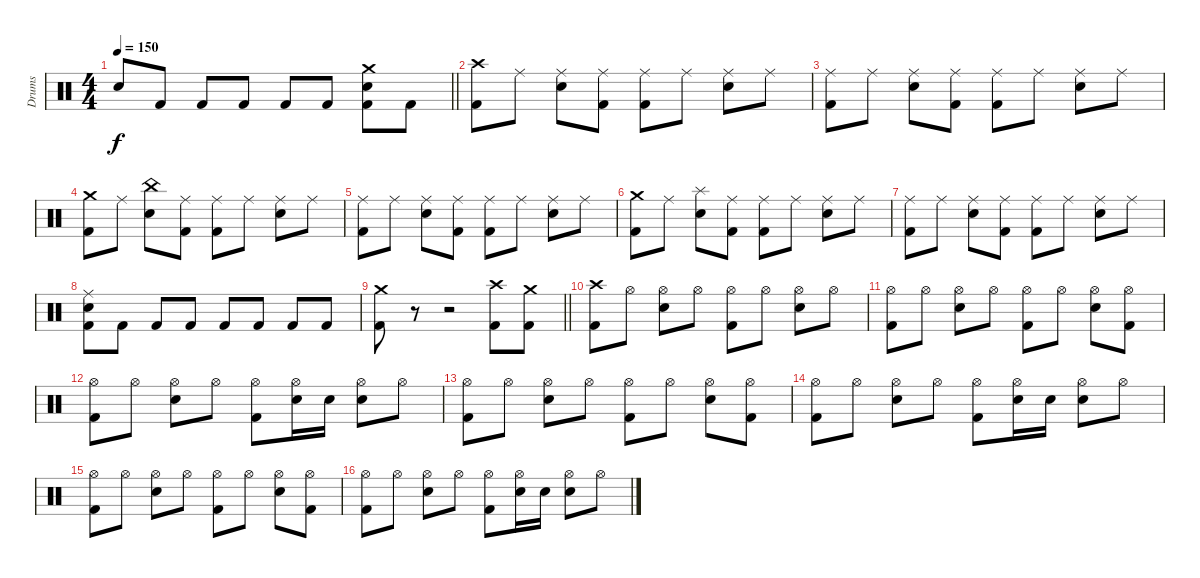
\track ("Drums" "Drums") {instrument percussion}
\staff {score}
\articulation defaults
\ts (4 4)
\tempo 150
\clef neutral
\barLineRight lightlight
\ks c "Snare (hit) 2".8{dy f} "Kick (hit) 2".8 "Kick (hit) 2".8 "Kick (hit) 2".8 "Kick (hit) 2".8 "Kick (hit) 2".8
("Crash medium (hit)" "Snare (hit) 2" "Kick (hit) 2").8 "Kick (hit) 2".8 |
("Crash high (hit)" "Kick (hit) 2").8 "Ride (middle)".8 ("Ride (middle)" "Snare (hit) 2").8 ("Ride (middle)" "Kick (hit) 2").8 ("Ride (middle)" "Kick (hit) 2").8 "Ride (middle)".8 ("Ride (middle)" "Snare (hit) 2").8 "Ride (middle)".8 |
("Ride (middle)" "Kick (hit) 2").8 "Ride (middle)".8 ("Ride (middle)" "Snare (hit) 2").8 ("Ride (middle)" "Kick (hit) 2").8 ("Ride (middle)" "Kick (hit) 2").8 "Ride (middle)".8 ("Ride (middle)" "Snare (hit) 2").8 "Ride (middle)".8 |
("Crash medium (hit)" "Kick (hit) 2").8 "Ride (middle)".8 ("China (hit)" "Snare (hit) 2").8 ("Ride (middle)" "Kick (hit) 2").8 ("Ride (middle)" "Kick (hit) 2").8 "Ride (middle)".8 ("Ride (middle)" "Snare (hit) 2").8 "Ride (middle)".8 |
("Ride (middle)" "Kick (hit) 2").8 "Ride (middle)".8 ("Ride (middle)" "Snare (hit) 2").8 ("Ride (middle)" "Kick (hit) 2").8 ("Ride (middle)" "Kick (hit) 2").8 "Ride (middle)".8 ("Ride (middle)" "Snare (hit) 2").8 "Ride (middle)".8 |
("Crash medium (hit)" "Kick (hit) 2").8 "Ride (middle)".8 ("Splash (hit)" "Snare (hit) 2").8 ("Ride (middle)" "Kick (hit) 2").8 ("Ride (middle)" "Kick (hit) 2").8 "Ride (middle)".8 ("Ride (middle)" "Snare (hit) 2").8 "Ride (middle)".8 |
("Ride (middle)" "Kick (hit) 2").8 "Ride (middle)".8 ("Ride (middle)" "Snare (hit) 2").8 ("Ride (middle)" "Kick (hit) 2").8 ("Ride (middle)" "Kick (hit) 2").8 "Ride (middle)".8 ("Ride (middle)" "Snare (hit) 2").8 "Ride (middle)".8 |
("Ride (middle)" "Snare (hit) 2" "Kick (hit) 2").8 "Kick (hit) 2".8 "Kick (hit) 2".8 "Kick (hit) 2".8 "Kick (hit) 2".8 "Kick (hit) 2".8 "Kick (hit) 2".8 "Kick (hit) 2".8 |
\barLineRight lightlight
("Crash medium (hit)" "Kick (hit) 2").8 r.8 r.2 ("Crash high (hit)" "Kick (hit) 2").8 ("Crash medium (hit)" "Kick (hit) 2").8 |
("Crash high (hit)" "Kick (hit) 2").8 "Hi-Hat (open)".8 ("Hi-Hat (open)" "Snare (hit) 2").8 "Hi-Hat (open)".8 ("Hi-Hat (open)" "Kick (hit) 2").8 "Hi-Hat (open)".8 ("Hi-Hat (open)" "Snare (hit) 2").8 "Hi-Hat (open)".8 |
("Hi-Hat (open)" "Kick (hit) 2").8 "Hi-Hat (open)".8 ("Hi-Hat (open)" "Snare (hit) 2").8 "Hi-Hat (open)".8 ("Hi-Hat (open)" "Kick (hit) 2").8 "Hi-Hat (open)".8 ("Hi-Hat (open)" "Snare (hit) 2").8 ("Hi-Hat (open)" "Kick (hit) 2").8 |
("Hi-Hat (open)" "Kick (hit) 2").8 "Hi-Hat (open)".8 ("Hi-Hat (open)" "Snare (hit) 2").8 "Hi-Hat (open)".8 ("Hi-Hat (open)" "Kick (hit) 2").8 ("Hi-Hat (open)" "Snare (hit) 2").16 "Snare (hit) 2".16 ("Hi-Hat (open)" "Snare (hit) 2").8 "Hi-Hat (open)".8 |
("Hi-Hat (open)" "Kick (hit) 2").8 "Hi-Hat (open)".8 ("Hi-Hat (open)" "Snare (hit) 2").8 "Hi-Hat (open)".8 ("Hi-Hat (open)" "Kick (hit) 2").8 "Hi-Hat (open)".8 ("Hi-Hat (open)" "Snare (hit) 2").8 ("Hi-Hat (open)" "Kick (hit) 2").8 |
("Hi-Hat (open)" "Kick (hit) 2").8 "Hi-Hat (open)".8 ("Hi-Hat (open)" "Snare (hit) 2").8 "Hi-Hat (open)".8 ("Hi-Hat (open)" "Kick (hit) 2").8 ("Hi-Hat (open)" "Snare (hit) 2").16 "Snare (hit) 2".16 ("Hi-Hat (open)" "Snare (hit) 2").8 "Hi-Hat (open)".8 |
("Hi-Hat (open)" "Kick (hit) 2").8 "Hi-Hat (open)".8 ("Hi-Hat (open)" "Snare (hit) 2").8 "Hi-Hat (open)".8 ("Hi-Hat (open)" "Kick (hit) 2").8 "Hi-Hat (open)".8 ("Hi-Hat (open)" "Snare (hit) 2").8 ("Hi-Hat (open)" "Kick (hit) 2").8 |
("Hi-Hat (open)" "Kick (hit) 2").8 "Hi-Hat (open)".8 ("Hi-Hat (open)" "Snare (hit) 2").8 "Hi-Hat (open)".8 ("Hi-Hat (open)" "Kick (hit) 2").8 ("Hi-Hat (open)" "Snare (hit) 2").16 "Snare (hit) 2".16 ("Hi-Hat (open)" "Snare (hit) 2").8 "Hi-Hat (open)".8
